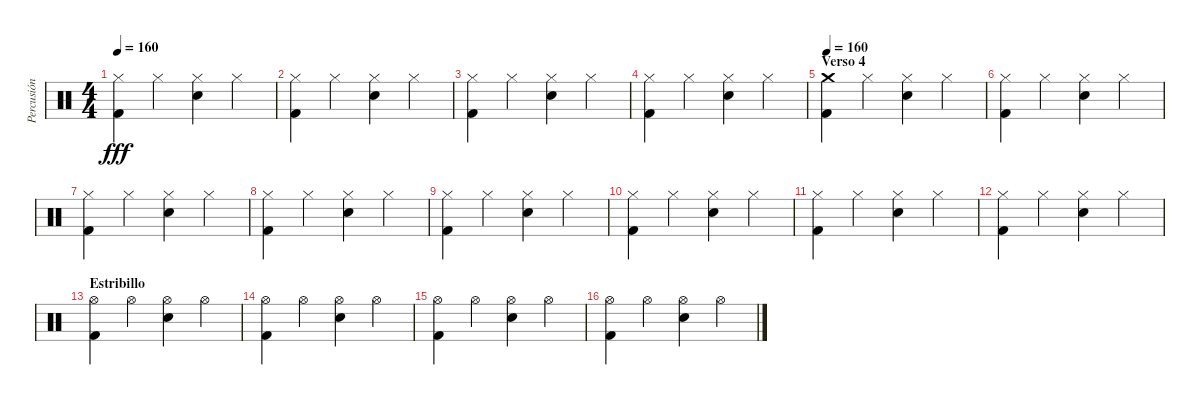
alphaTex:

\track ("Percusión" "Percusión") {instrument percussion}
\staff {score}
\articulation defaults
\ts (4 4)
\tempo 160
\clef neutral
\ks c
("Hi-Hat (closed)" "Kick (hit) 2").4{dy fff} "Hi-Hat (closed)".4 ("Hi-Hat (closed)" "Snare (hit) 2").4 "Hi-Hat (closed)".4 |
("Hi-Hat (closed)" "Kick (hit) 2").4 "Hi-Hat (closed)".4 ("Hi-Hat (closed)" "Snare (hit) 2").4 "Hi-Hat (closed)".4 |
("Hi-Hat (closed)" "Kick (hit) 2").4 "Hi-Hat (closed)".4 ("Hi-Hat (closed)" "Snare (hit) 2").4 "Hi-Hat (closed)".4 |
("Hi-Hat (closed)" "Kick (hit) 2").4 "Hi-Hat (closed)".4 ("Hi-Hat (closed)" "Snare (hit) 2").4 "Hi-Hat (closed)".4 |
\section ("" "Verso 4")
\tempo 160
("Crash medium (hit)" "Kick (hit) 2").4 "Hi-Hat (closed)".4 ("Hi-Hat (closed)" "Snare (hit) 2").4 "Hi-Hat (closed)".4 |
("Hi-Hat (closed)" "Kick (hit) 2").4 "Hi-Hat (closed)".4 ("Hi-Hat (closed)" "Snare (hit) 2").4 "Hi-Hat (closed)".4 |
("Hi-Hat (closed)" "Kick (hit) 2").4 "Hi-Hat (closed)".4 ("Hi-Hat (closed)" "Snare (hit) 2").4 "Hi-Hat (closed)".4 |
("Hi-Hat (closed)" "Kick (hit) 2").4 "Hi-Hat (closed)".4 ("Hi-Hat (closed)" "Snare (hit) 2").4 "Hi-Hat (closed)".4 |
("Hi-Hat (closed)" "Kick (hit) 2").4 "Hi-Hat (closed)".4 ("Hi-Hat (closed)" "Snare (hit) 2").4 "Hi-Hat (closed)".4 |
("Hi-Hat (closed)" "Kick (hit) 2").4 "Hi-Hat (closed)".4 ("Hi-Hat (closed)" "Snare (hit) 2").4 "Hi-Hat (closed)".4 |
("Hi-Hat (closed)" "Kick (hit) 2").4 "Hi-Hat (closed)".4 ("Hi-Hat (closed)" "Snare (hit) 2").4 "Hi-Hat (closed)".4 |
("Hi-Hat (closed)" "Kick (hit) 2").4 "Hi-Hat (closed)".4 ("Hi-Hat (closed)" "Snare (hit) 2").4 "Hi-Hat (closed)".4 |
\section ("" "Estribillo")
("Hi-Hat (open)" "Kick (hit) 2").4 "Hi-Hat (open)".4 ("Hi-Hat (open)" "Snare (hit) 2").4 "Hi-Hat (open)".4 |
("Hi-Hat (open)" "Kick (hit) 2").4 "Hi-Hat (open)".4 ("Hi-Hat (open)" "Snare (hit) 2").4 "Hi-Hat (open)".4 |
("Hi-Hat (open)" "Kick (hit) 2").4 "Hi-Hat (open)".4 ("Hi-Hat (open)" "Snare (hit) 2").4 "Hi-Hat (open)".4 |
("Hi-Hat (open)" "Kick (hit) 2").4 "Hi-Hat (open)".4 ("Hi-Hat (open)" "Snare (hit) 2").4 "Hi-Hat (open)".4
